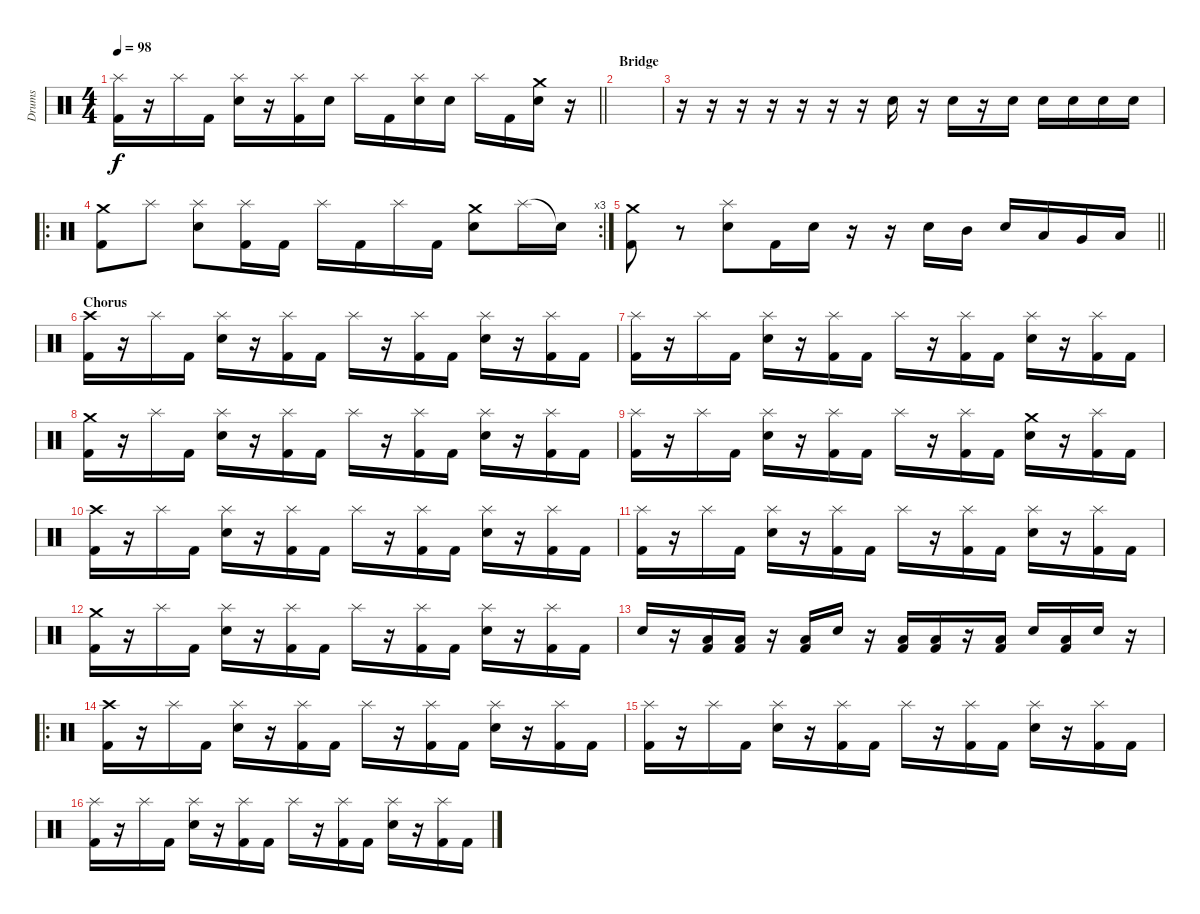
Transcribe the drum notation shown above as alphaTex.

\track ("Drums" "Drums") {instrument percussion}
\staff {score}
\articulation defaults
\ts (4 4)
\tempo 98
\clef neutral
\barLineRight lightlight
\ks c
("Splash (hit)" "Kick (hit) 2").16{dy f} r.16 "Splash (hit)".16 "Kick (hit) 2".16 ("Splash (hit)" "Electric Snare (hit)").16 r.16 ("Splash (hit)" "Kick (hit) 2").16 "Electric Snare (hit)".16 "Splash (hit)".16 "Kick (hit) 2".16 ("Splash (hit)" "Electric Snare (hit)").16 "Electric Snare (hit)".16 "Splash (hit)".16 "Kick (hit) 2".16 ("Crash medium (hit)" "Electric Snare (hit)").16 r.16 |
\section ("" "Bridge")
|
r.16 r.16 r.16 r.16 r.16 r.16 r.16 "Electric Snare (hit)".16 r.16 "Electric Snare (hit)".16 r.16 "Electric Snare (hit)".16 "Electric Snare (hit)".16 "Electric Snare (hit)".16 "Electric Snare (hit)".16 "Electric Snare (hit)".16 |
\ro
\rc 3
("Crash medium (hit)" "Kick (hit) 2").8 "Splash (hit)".8 ("Splash (hit)" "Electric Snare (hit)").8 ("Splash (hit)" "Kick (hit) 2").16 "Kick (hit) 2".16 "Splash (hit)".16 "Kick (hit) 2".16 "Splash (hit)".16 "Kick (hit) 2".16 ("Crash medium (hit)" "Electric Snare (hit)").8 "Splash (hit)".16 "Snare (hit)"{t}.16 |
\barLineRight lightlight
("Crash medium (hit)" "Kick (hit) 2").8 r.8 ("Splash (hit)" "Electric Snare (hit)").8 "Kick (hit) 2".16 "Electric Snare (hit)".16 r.16 r.16 "Electric Snare (hit)".16 "Mid Tom (hit)".16 "Electric Snare (hit)".16 "Low Floor Tom (hit)".16 "Very Low Tom (hit)".16 "Low Tom (hit)".16 |
\section ("" "Chorus ")
("Crash high (hit)" "Kick (hit) 2").16 r.16 "Splash (hit)".16 "Kick (hit) 2".16 ("Splash (hit)" "Electric Snare (hit)").16 r.16 ("Splash (hit)" "Kick (hit) 2").16 "Kick (hit) 2".16 "Splash (hit)".16 r.16 ("Splash (hit)" "Kick (hit) 2").16 "Kick (hit) 2".16 ("Splash (hit)" "Electric Snare (hit)").16 r.16 ("Splash (hit)" "Kick (hit) 2").16 "Kick (hit) 2".16 |
("Splash (hit)" "Kick (hit) 2").16 r.16 "Splash (hit)".16 "Kick (hit) 2".16 ("Splash (hit)" "Electric Snare (hit)").16 r.16 ("Splash (hit)" "Kick (hit) 2").16 "Kick (hit) 2".16 "Splash (hit)".16 r.16 ("Splash (hit)" "Kick (hit) 2").16 "Kick (hit) 2".16 ("Splash (hit)" "Electric Snare (hit)").16 r.16 ("Splash (hit)" "Kick (hit) 2").16 "Kick (hit) 2".16 |
("Crash medium (hit)" "Kick (hit) 2").16 r.16 "Splash (hit)".16 "Kick (hit) 2".16 ("Splash (hit)" "Electric Snare (hit)").16 r.16 ("Splash (hit)" "Kick (hit) 2").16 "Kick (hit) 2".16 "Splash (hit)".16 r.16 ("Splash (hit)" "Kick (hit) 2").16 "Kick (hit) 2".16 ("Splash (hit)" "Electric Snare (hit)").16 r.16 ("Splash (hit)" "Kick (hit) 2").16 "Kick (hit) 2".16 |
("Splash (hit)" "Kick (hit) 2").16 r.16 "Splash (hit)".16 "Kick (hit) 2".16 ("Splash (hit)" "Electric Snare (hit)").16 r.16 ("Splash (hit)" "Kick (hit) 2").16 "Kick (hit) 2".16 "Splash (hit)".16 r.16 ("Splash (hit)" "Kick (hit) 2").16 "Kick (hit) 2".16 ("Crash medium (hit)" "Electric Snare (hit)").16 r.16 ("Splash (hit)" "Kick (hit) 2").16 "Kick (hit) 2".16 |
("Crash high (hit)" "Kick (hit) 2").16 r.16 "Splash (hit)".16 "Kick (hit) 2".16 ("Splash (hit)" "Electric Snare (hit)").16 r.16 ("Splash (hit)" "Kick (hit) 2").16 "Kick (hit) 2".16 "Splash (hit)".16 r.16 ("Splash (hit)" "Kick (hit) 2").16 "Kick (hit) 2".16 ("Splash (hit)" "Electric Snare (hit)").16 r.16 ("Splash (hit)" "Kick (hit) 2").16 "Kick (hit) 2".16 |
("Splash (hit)" "Kick (hit) 2").16 r.16 "Splash (hit)".16 "Kick (hit) 2".16 ("Splash (hit)" "Electric Snare (hit)").16 r.16 ("Splash (hit)" "Kick (hit) 2").16 "Kick (hit) 2".16 "Splash (hit)".16 r.16 ("Splash (hit)" "Kick (hit) 2").16 "Kick (hit) 2".16 ("Splash (hit)" "Electric Snare (hit)").16 r.16 ("Splash (hit)" "Kick (hit) 2").16 "Kick (hit) 2".16 |
("Crash medium (hit)" "Kick (hit) 2").16 r.16 "Splash (hit)".16 "Kick (hit) 2".16 ("Splash (hit)" "Electric Snare (hit)").16 r.16 ("Splash (hit)" "Kick (hit) 2").16 "Kick (hit) 2".16 "Splash (hit)".16 r.16 ("Splash (hit)" "Kick (hit) 2").16 "Kick (hit) 2".16 ("Splash (hit)" "Electric Snare (hit)").16 r.16 ("Splash (hit)" "Kick (hit) 2").16 "Kick (hit) 2".16 |
"Electric Snare (hit)".16 r.16 ("Low Floor Tom (hit)" "Kick (hit) 2").16 ("Low Floor Tom (hit)" "Kick (hit) 2").16 r.16 ("Low Floor Tom (hit)" "Kick (hit) 2").16 "Electric Snare (hit)".16 r.16 ("Low Floor Tom (hit)" "Kick (hit) 2").16 ("Low Floor Tom (hit)" "Kick (hit) 2").16 r.16 ("Low Floor Tom (hit)" "Kick (hit) 2").16 "Electric Snare (hit)".16 ("Low Floor Tom (hit)" "Kick (hit) 2").16 "Electric Snare (hit)".16 r.16 |
\ro
("Crash high (hit)" "Kick (hit) 2").16 r.16 "Splash (hit)".16 "Kick (hit) 2".16 ("Splash (hit)" "Electric Snare (hit)").16 r.16 ("Splash (hit)" "Kick (hit) 2").16 "Kick (hit) 2".16 "Splash (hit)".16 r.16 ("Splash (hit)" "Kick (hit) 2").16 "Kick (hit) 2".16 ("Splash (hit)" "Electric Snare (hit)").16 r.16 ("Splash (hit)" "Kick (hit) 2").16 "Kick (hit) 2".16 |
("Splash (hit)" "Kick (hit) 2").16 r.16 "Splash (hit)".16 "Kick (hit) 2".16 ("Splash (hit)" "Electric Snare (hit)").16 r.16 ("Splash (hit)" "Kick (hit) 2").16 "Kick (hit) 2".16 "Splash (hit)".16 r.16 ("Splash (hit)" "Kick (hit) 2").16 "Kick (hit) 2".16 ("Splash (hit)" "Electric Snare (hit)").16 r.16 ("Splash (hit)" "Kick (hit) 2").16 "Kick (hit) 2".16 |
("Splash (hit)" "Kick (hit) 2").16 r.16 "Splash (hit)".16 "Kick (hit) 2".16 ("Splash (hit)" "Electric Snare (hit)").16 r.16 ("Splash (hit)" "Kick (hit) 2").16 "Kick (hit) 2".16 "Splash (hit)".16 r.16 ("Splash (hit)" "Kick (hit) 2").16 "Kick (hit) 2".16 ("Splash (hit)" "Electric Snare (hit)").16 r.16 ("Splash (hit)" "Kick (hit) 2").16 "Kick (hit) 2".16
